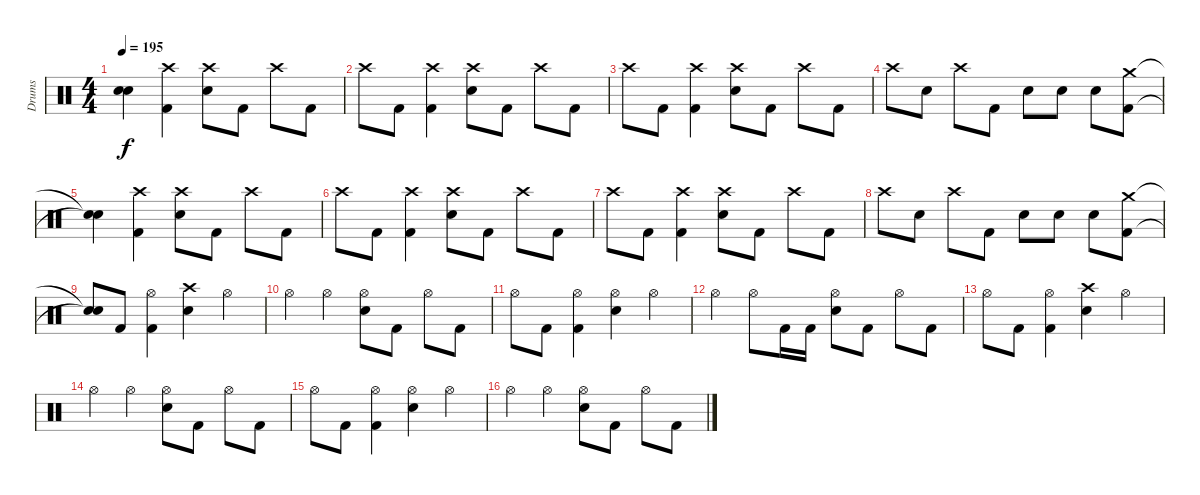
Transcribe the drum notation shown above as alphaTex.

\track ("Drums" "Drums") {instrument percussion}
\staff {score}
\articulation defaults
\ts (4 4)
\tempo 195
\clef neutral
\ks c
("Snare (hit)"{t} "Snare (hit)"{t}).4{dy f} ("Crash high (hit)" "Kick (hit) 2").4 ("Crash high (hit)" "Electric Snare (hit)").8 "Kick (hit) 2".8 "Crash high (hit)".8 "Kick (hit) 2".8 |
"Crash high (hit)".8 "Kick (hit) 2".8 ("Crash high (hit)" "Kick (hit) 2").4 ("Crash high (hit)" "Electric Snare (hit)").8 "Kick (hit) 2".8 "Crash high (hit)".8 "Kick (hit) 2".8 |
"Crash high (hit)".8 "Kick (hit) 2".8 ("Crash high (hit)" "Kick (hit) 2").4 ("Crash high (hit)" "Electric Snare (hit)").8 "Kick (hit) 2".8 "Crash high (hit)".8 "Kick (hit) 2".8 |
"Crash high (hit)".8 "Electric Snare (hit)".8 "Crash high (hit)".8 "Kick (hit) 2".8 "Electric Snare (hit)".8 "Electric Snare (hit)".8 "Electric Snare (hit)".8 ("Crash medium (hit)" "Kick (hit) 2").8 |
("Snare (hit)"{t} "Snare (hit)"{t}).4 ("Crash high (hit)" "Kick (hit) 2").4 ("Crash high (hit)" "Electric Snare (hit)").8 "Kick (hit) 2".8 "Crash high (hit)".8 "Kick (hit) 2".8 |
"Crash high (hit)".8 "Kick (hit) 2".8 ("Crash high (hit)" "Kick (hit) 2").4 ("Crash high (hit)" "Electric Snare (hit)").8 "Kick (hit) 2".8 "Crash high (hit)".8 "Kick (hit) 2".8 |
"Crash high (hit)".8 "Kick (hit) 2".8 ("Crash high (hit)" "Kick (hit) 2").4 ("Crash high (hit)" "Electric Snare (hit)").8 "Kick (hit) 2".8 "Crash high (hit)".8 "Kick (hit) 2".8 |
"Crash high (hit)".8 "Electric Snare (hit)".8 "Crash high (hit)".8 "Kick (hit) 2".8 "Electric Snare (hit)".8 "Electric Snare (hit)".8 "Electric Snare (hit)".8 ("Crash medium (hit)" "Kick (hit) 2").8 |
("Snare (hit)"{t} "Snare (hit)"{t}).8 "Kick (hit) 2".8 ("Hi-Hat (open)" "Kick (hit) 2").4 ("Crash high (hit)" "Electric Snare (hit)").4 "Hi-Hat (open)".4 |
"Hi-Hat (open)".4 "Hi-Hat (open)".4 ("Hi-Hat (open)" "Electric Snare (hit)").8 "Kick (hit) 2".8 "Hi-Hat (open)".8 "Kick (hit) 2".8 |
"Hi-Hat (open)".8 "Kick (hit) 2".8 ("Hi-Hat (open)" "Kick (hit) 2").4 ("Hi-Hat (open)" "Electric Snare (hit)").4 "Hi-Hat (open)".4 |
"Hi-Hat (open)".4 "Hi-Hat (open)".8 "Kick (hit) 2".16 "Kick (hit) 2".16 ("Hi-Hat (open)" "Electric Snare (hit)").8 "Kick (hit) 2".8 "Hi-Hat (open)".8 "Kick (hit) 2".8 |
"Hi-Hat (open)".8 "Kick (hit) 2".8 ("Hi-Hat (open)" "Kick (hit) 2").4 ("Crash high (hit)" "Electric Snare (hit)").4 "Hi-Hat (open)".4 |
"Hi-Hat (open)".4 "Hi-Hat (open)".4 ("Hi-Hat (open)" "Electric Snare (hit)").8 "Kick (hit) 2".8 "Hi-Hat (open)".8 "Kick (hit) 2".8 |
"Hi-Hat (open)".8 "Kick (hit) 2".8 ("Hi-Hat (open)" "Kick (hit) 2").4 ("Hi-Hat (open)" "Electric Snare (hit)").4 "Hi-Hat (open)".4 |
"Hi-Hat (open)".4 "Hi-Hat (open)".4 ("Hi-Hat (open)" "Electric Snare (hit)").8 "Kick (hit) 2".8 "Hi-Hat (open)".8 "Kick (hit) 2".8
